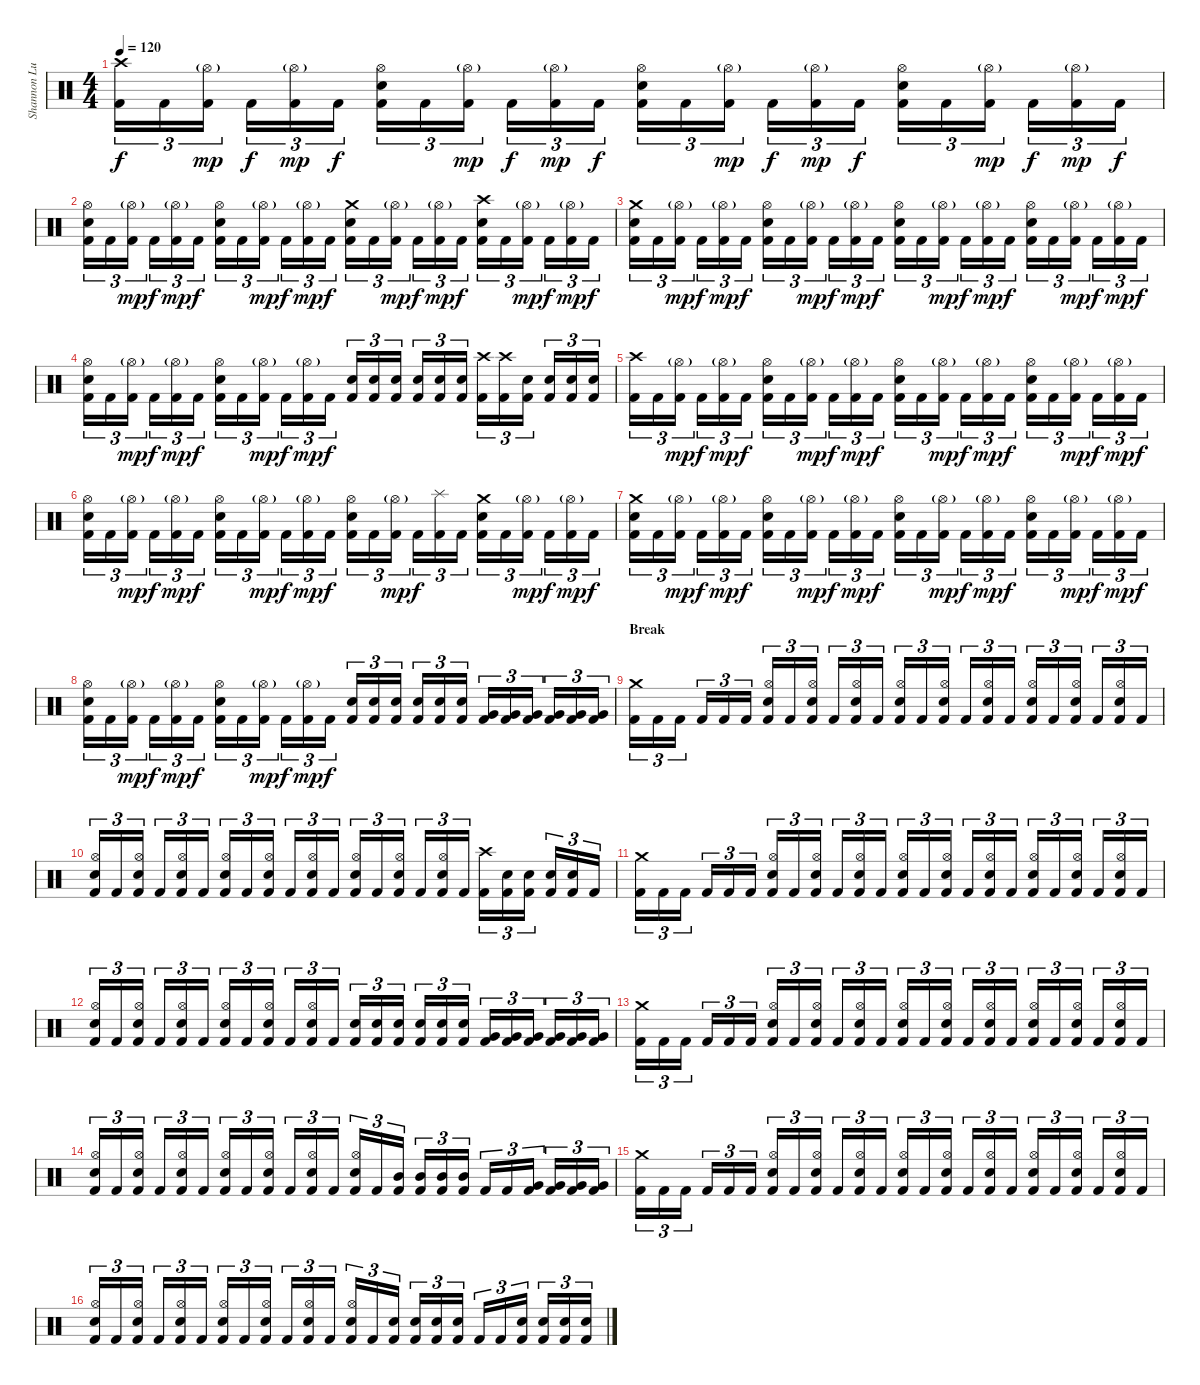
\track ("Shannon Lucas (Drums)" "Shannon Lu") {instrument percussion}
\staff {score}
\articulation defaults
\ts (4 4)
\tempo 120
\clef neutral
\ks c
("Crash high (hit)" "Kick (hit) 2").16{tu (3 2) dy f} "Kick (hit) 2".16{tu (3 2)} ("Hi-Hat (open)"{g} "Kick (hit) 2").16{tu (3 2) dy mp} "Kick (hit) 2".16{tu (3 2) dy f} ("Hi-Hat (open)"{g} "Kick (hit) 2").16{tu (3 2) dy mp} "Kick (hit) 2".16{tu (3 2) dy f} ("Snare (hit) 2" "Hi-Hat (open)" "Kick (hit) 2").16{tu (3 2)} "Kick (hit) 2".16{tu (3 2)} ("Hi-Hat (open)"{g} "Kick (hit) 2").16{tu (3 2) dy mp} "Kick (hit) 2".16{tu (3 2) dy f} ("Hi-Hat (open)"{g} "Kick (hit) 2").16{tu (3 2) dy mp} "Kick (hit) 2".16{tu (3 2) dy f} ("Snare (hit) 2" "Hi-Hat (open)" "Kick (hit) 2").16{tu (3 2)} "Kick (hit) 2".16{tu (3 2)} ("Hi-Hat (open)"{g} "Kick (hit) 2").16{tu (3 2) dy mp} "Kick (hit) 2".16{tu (3 2) dy f} ("Hi-Hat (open)"{g} "Kick (hit) 2").16{tu (3 2) dy mp} "Kick (hit) 2".16{tu (3 2) dy f} ("Snare (hit) 2" "Hi-Hat (open)" "Kick (hit) 2").16{tu (3 2)} "Kick (hit) 2".16{tu (3 2)} ("Hi-Hat (open)"{g} "Kick (hit) 2").16{tu (3 2) dy mp} "Kick (hit) 2".16{tu (3 2) dy f} ("Hi-Hat (open)"{g} "Kick (hit) 2").16{tu (3 2) dy mp} "Kick (hit) 2".16{tu (3 2) dy f} |
("Hi-Hat (open)" "Snare (hit) 2" "Kick (hit) 2").16{tu (3 2)} "Kick (hit) 2".16{tu (3 2)} ("Hi-Hat (open)"{g} "Kick (hit) 2").16{tu (3 2) dy mp} "Kick (hit) 2".16{tu (3 2) dy f} ("Hi-Hat (open)"{g} "Kick (hit) 2").16{tu (3 2) dy mp} "Kick (hit) 2".16{tu (3 2) dy f} ("Snare (hit) 2" "Hi-Hat (open)" "Kick (hit) 2").16{tu (3 2)} "Kick (hit) 2".16{tu (3 2)} ("Hi-Hat (open)"{g} "Kick (hit) 2").16{tu (3 2) dy mp} "Kick (hit) 2".16{tu (3 2) dy f} ("Hi-Hat (open)"{g} "Kick (hit) 2").16{tu (3 2) dy mp} "Kick (hit) 2".16{tu (3 2) dy f} ("Snare (hit) 2" "Crash medium (hit)" "Kick (hit) 2").16{tu (3 2)} "Kick (hit) 2".16{tu (3 2)} ("Hi-Hat (open)"{g} "Kick (hit) 2").16{tu (3 2) dy mp} "Kick (hit) 2".16{tu (3 2) dy f} ("Hi-Hat (open)"{g} "Kick (hit) 2").16{tu (3 2) dy mp} "Kick (hit) 2".16{tu (3 2) dy f} ("Snare (hit) 2" "Crash high (hit)" "Kick (hit) 2").16{tu (3 2)} "Kick (hit) 2".16{tu (3 2)} ("Hi-Hat (open)"{g} "Kick (hit) 2").16{tu (3 2) dy mp} "Kick (hit) 2".16{tu (3 2) dy f} ("Hi-Hat (open)"{g} "Kick (hit) 2").16{tu (3 2) dy mp} "Kick (hit) 2".16{tu (3 2) dy f} |
("Crash medium (hit)" "Snare (hit) 2" "Kick (hit) 2").16{tu (3 2)} "Kick (hit) 2".16{tu (3 2)} ("Hi-Hat (open)"{g} "Kick (hit) 2").16{tu (3 2) dy mp} "Kick (hit) 2".16{tu (3 2) dy f} ("Hi-Hat (open)"{g} "Kick (hit) 2").16{tu (3 2) dy mp} "Kick (hit) 2".16{tu (3 2) dy f} ("Snare (hit) 2" "Hi-Hat (open)" "Kick (hit) 2").16{tu (3 2)} "Kick (hit) 2".16{tu (3 2)} ("Hi-Hat (open)"{g} "Kick (hit) 2").16{tu (3 2) dy mp} "Kick (hit) 2".16{tu (3 2) dy f} ("Hi-Hat (open)"{g} "Kick (hit) 2").16{tu (3 2) dy mp} "Kick (hit) 2".16{tu (3 2) dy f} ("Snare (hit) 2" "Hi-Hat (open)" "Kick (hit) 2").16{tu (3 2)} "Kick (hit) 2".16{tu (3 2)} ("Hi-Hat (open)"{g} "Kick (hit) 2").16{tu (3 2) dy mp} "Kick (hit) 2".16{tu (3 2) dy f} ("Hi-Hat (open)"{g} "Kick (hit) 2").16{tu (3 2) dy mp} "Kick (hit) 2".16{tu (3 2) dy f} ("Snare (hit) 2" "Hi-Hat (open)" "Kick (hit) 2").16{tu (3 2)} "Kick (hit) 2".16{tu (3 2)} ("Hi-Hat (open)"{g} "Kick (hit) 2").16{tu (3 2) dy mp} "Kick (hit) 2".16{tu (3 2) dy f} ("Hi-Hat (open)"{g} "Kick (hit) 2").16{tu (3 2) dy mp} "Kick (hit) 2".16{tu (3 2) dy f} |
("Hi-Hat (open)" "Snare (hit) 2" "Kick (hit) 2").16{tu (3 2)} "Kick (hit) 2".16{tu (3 2)} ("Hi-Hat (open)"{g} "Kick (hit) 2").16{tu (3 2) dy mp} "Kick (hit) 2".16{tu (3 2) dy f} ("Hi-Hat (open)"{g} "Kick (hit) 2").16{tu (3 2) dy mp} "Kick (hit) 2".16{tu (3 2) dy f} ("Snare (hit) 2" "Hi-Hat (open)" "Kick (hit) 2").16{tu (3 2)} "Kick (hit) 2".16{tu (3 2)} ("Hi-Hat (open)"{g} "Kick (hit) 2").16{tu (3 2) dy mp} "Kick (hit) 2".16{tu (3 2) dy f} ("Hi-Hat (open)"{g} "Kick (hit) 2").16{tu (3 2) dy mp} "Kick (hit) 2".16{tu (3 2) dy f} ("Snare (hit) 2" "Kick (hit) 2").16{tu (3 2)} ("Snare (hit) 2" "Kick (hit) 2").16{tu (3 2)} ("Snare (hit) 2" "Kick (hit) 2").16{tu (3 2)} ("Snare (hit) 2" "Kick (hit) 2").16{tu (3 2)} ("Snare (hit) 2" "Kick (hit) 2").16{tu (3 2)} ("Snare (hit) 2" "Kick (hit) 2").16{tu (3 2)} ("Crash high (hit)" "Kick (hit) 2").16{tu (3 2)} ("Crash high (hit)" "Kick (hit) 2").16{tu (3 2)} ("Snare (hit) 2" "Kick (hit) 2").16{tu (3 2)} ("Snare (hit) 2" "Kick (hit) 2").16{tu (3 2)} ("Snare (hit) 2" "Kick (hit) 2").16{tu (3 2)} ("Snare (hit) 2" "Kick (hit) 2").16{tu (3 2)} |
("Crash high (hit)" "Kick (hit) 2").16{tu (3 2)} "Kick (hit) 2".16{tu (3 2)} ("Hi-Hat (open)"{g} "Kick (hit) 2").16{tu (3 2) dy mp} "Kick (hit) 2".16{tu (3 2) dy f} ("Hi-Hat (open)"{g} "Kick (hit) 2").16{tu (3 2) dy mp} "Kick (hit) 2".16{tu (3 2) dy f} ("Snare (hit) 2" "Hi-Hat (open)" "Kick (hit) 2").16{tu (3 2)} "Kick (hit) 2".16{tu (3 2)} ("Hi-Hat (open)"{g} "Kick (hit) 2").16{tu (3 2) dy mp} "Kick (hit) 2".16{tu (3 2) dy f} ("Hi-Hat (open)"{g} "Kick (hit) 2").16{tu (3 2) dy mp} "Kick (hit) 2".16{tu (3 2) dy f} ("Snare (hit) 2" "Hi-Hat (open)" "Kick (hit) 2").16{tu (3 2)} "Kick (hit) 2".16{tu (3 2)} ("Hi-Hat (open)"{g} "Kick (hit) 2").16{tu (3 2) dy mp} "Kick (hit) 2".16{tu (3 2) dy f} ("Hi-Hat (open)"{g} "Kick (hit) 2").16{tu (3 2) dy mp} "Kick (hit) 2".16{tu (3 2) dy f} ("Snare (hit) 2" "Hi-Hat (open)" "Kick (hit) 2").16{tu (3 2)} "Kick (hit) 2".16{tu (3 2)} ("Hi-Hat (open)"{g} "Kick (hit) 2").16{tu (3 2) dy mp} "Kick (hit) 2".16{tu (3 2) dy f} ("Hi-Hat (open)"{g} "Kick (hit) 2").16{tu (3 2) dy mp} "Kick (hit) 2".16{tu (3 2) dy f} |
("Hi-Hat (open)" "Snare (hit) 2" "Kick (hit) 2").16{tu (3 2)} "Kick (hit) 2".16{tu (3 2)} ("Hi-Hat (open)"{g} "Kick (hit) 2").16{tu (3 2) dy mp} "Kick (hit) 2".16{tu (3 2) dy f} ("Hi-Hat (open)"{g} "Kick (hit) 2").16{tu (3 2) dy mp} "Kick (hit) 2".16{tu (3 2) dy f} ("Snare (hit) 2" "Hi-Hat (open)" "Kick (hit) 2").16{tu (3 2)} "Kick (hit) 2".16{tu (3 2)} ("Hi-Hat (open)"{g} "Kick (hit) 2").16{tu (3 2) dy mp} "Kick (hit) 2".16{tu (3 2) dy f} ("Hi-Hat (open)"{g} "Kick (hit) 2").16{tu (3 2) dy mp} "Kick (hit) 2".16{tu (3 2) dy f} ("Snare (hit) 2" "Hi-Hat (open)" "Kick (hit) 2").16{tu (3 2)} "Kick (hit) 2".16{tu (3 2)} ("Hi-Hat (open)"{g} "Kick (hit) 2").16{tu (3 2) dy mp} "Kick (hit) 2".16{tu (3 2) dy f} ("Splash (hit)" "Kick (hit) 2").16{tu (3 2)} "Kick (hit) 2".16{tu (3 2)} ("Snare (hit) 2" "Crash medium (hit)" "Kick (hit) 2").16{tu (3 2)} "Kick (hit) 2".16{tu (3 2)} ("Hi-Hat (open)"{g} "Kick (hit) 2").16{tu (3 2) dy mp} "Kick (hit) 2".16{tu (3 2) dy f} ("Hi-Hat (open)"{g} "Kick (hit) 2").16{tu (3 2) dy mp} "Kick (hit) 2".16{tu (3 2) dy f} |
("Crash medium (hit)" "Snare (hit) 2" "Kick (hit) 2").16{tu (3 2)} "Kick (hit) 2".16{tu (3 2)} ("Hi-Hat (open)"{g} "Kick (hit) 2").16{tu (3 2) dy mp} "Kick (hit) 2".16{tu (3 2) dy f} ("Hi-Hat (open)"{g} "Kick (hit) 2").16{tu (3 2) dy mp} "Kick (hit) 2".16{tu (3 2) dy f} ("Snare (hit) 2" "Hi-Hat (open)" "Kick (hit) 2").16{tu (3 2)} "Kick (hit) 2".16{tu (3 2)} ("Hi-Hat (open)"{g} "Kick (hit) 2").16{tu (3 2) dy mp} "Kick (hit) 2".16{tu (3 2) dy f} ("Hi-Hat (open)"{g} "Kick (hit) 2").16{tu (3 2) dy mp} "Kick (hit) 2".16{tu (3 2) dy f} ("Snare (hit) 2" "Hi-Hat (open)" "Kick (hit) 2").16{tu (3 2)} "Kick (hit) 2".16{tu (3 2)} ("Hi-Hat (open)"{g} "Kick (hit) 2").16{tu (3 2) dy mp} "Kick (hit) 2".16{tu (3 2) dy f} ("Hi-Hat (open)"{g} "Kick (hit) 2").16{tu (3 2) dy mp} "Kick (hit) 2".16{tu (3 2) dy f} ("Snare (hit) 2" "Hi-Hat (open)" "Kick (hit) 2").16{tu (3 2)} "Kick (hit) 2".16{tu (3 2)} ("Hi-Hat (open)"{g} "Kick (hit) 2").16{tu (3 2) dy mp} "Kick (hit) 2".16{tu (3 2) dy f} ("Hi-Hat (open)"{g} "Kick (hit) 2").16{tu (3 2) dy mp} "Kick (hit) 2".16{tu (3 2) dy f} |
("Hi-Hat (open)" "Snare (hit) 2" "Kick (hit) 2").16{tu (3 2)} "Kick (hit) 2".16{tu (3 2)} ("Hi-Hat (open)"{g} "Kick (hit) 2").16{tu (3 2) dy mp} "Kick (hit) 2".16{tu (3 2) dy f} ("Hi-Hat (open)"{g} "Kick (hit) 2").16{tu (3 2) dy mp} "Kick (hit) 2".16{tu (3 2) dy f} ("Snare (hit) 2" "Hi-Hat (open)" "Kick (hit) 2").16{tu (3 2)} "Kick (hit) 2".16{tu (3 2)} ("Hi-Hat (open)"{g} "Kick (hit) 2").16{tu (3 2) dy mp} "Kick (hit) 2".16{tu (3 2) dy f} ("Hi-Hat (open)"{g} "Kick (hit) 2").16{tu (3 2) dy mp} "Kick (hit) 2".16{tu (3 2) dy f} ("Snare (hit) 2" "Kick (hit) 2").16{tu (3 2)} ("Snare (hit) 2" "Kick (hit) 2").16{tu (3 2)} ("Snare (hit) 2" "Kick (hit) 2").16{tu (3 2)} ("Snare (hit) 2" "Kick (hit) 2").16{tu (3 2)} ("Snare (hit) 2" "Kick (hit) 2").16{tu (3 2)} ("Snare (hit) 2" "Kick (hit) 2").16{tu (3 2)} ("Very Low Tom (hit)" "Kick (hit) 2").16{tu (3 2)} ("Very Low Tom (hit)" "Kick (hit) 2").16{tu (3 2)} ("Very Low Tom (hit)" "Kick (hit) 2").16{tu (3 2)} ("Very Low Tom (hit)" "Kick (hit) 2").16{tu (3 2)} ("Very Low Tom (hit)" "Kick (hit) 2").16{tu (3 2)} ("Very Low Tom (hit)" "Kick (hit) 2").16{tu (3 2)} |
\section ("" "Break")
("Crash medium (hit)" "Kick (hit) 2").16{tu (3 2)} "Kick (hit) 2".16{tu (3 2)} "Kick (hit) 2".16{tu (3 2)} "Kick (hit) 2".16{tu (3 2)} "Kick (hit) 2".16{tu (3 2)} "Kick (hit) 2".16{tu (3 2)} ("Hi-Hat (open)" "Snare (hit) 2" "Kick (hit) 2").16{tu (3 2)} "Kick (hit) 2".16{tu (3 2)} ("Hi-Hat (open)" "Snare (hit) 2" "Kick (hit) 2").16{tu (3 2)} "Kick (hit) 2".16{tu (3 2)} ("Hi-Hat (open)" "Snare (hit) 2" "Kick (hit) 2").16{tu (3 2)} "Kick (hit) 2".16{tu (3 2)} ("Hi-Hat (open)" "Snare (hit) 2" "Kick (hit) 2").16{tu (3 2)} "Kick (hit) 2".16{tu (3 2)} ("Hi-Hat (open)" "Snare (hit) 2" "Kick (hit) 2").16{tu (3 2)} "Kick (hit) 2".16{tu (3 2)} ("Hi-Hat (open)" "Snare (hit) 2" "Kick (hit) 2").16{tu (3 2)} "Kick (hit) 2".16{tu (3 2)} ("Hi-Hat (open)" "Snare (hit) 2" "Kick (hit) 2").16{tu (3 2)} "Kick (hit) 2".16{tu (3 2)} ("Hi-Hat (open)" "Snare (hit) 2" "Kick (hit) 2").16{tu (3 2)} "Kick (hit) 2".16{tu (3 2)} ("Hi-Hat (open)" "Snare (hit) 2" "Kick (hit) 2").16{tu (3 2)} "Kick (hit) 2".16{tu (3 2)} |
("Kick (hit) 2" "Hi-Hat (open)" "Snare (hit) 2").16{tu (3 2)} "Kick (hit) 2".16{tu (3 2)} ("Hi-Hat (open)" "Snare (hit) 2" "Kick (hit) 2").16{tu (3 2)} "Kick (hit) 2".16{tu (3 2)} ("Hi-Hat (open)" "Snare (hit) 2" "Kick (hit) 2").16{tu (3 2)} "Kick (hit) 2".16{tu (3 2)} ("Hi-Hat (open)" "Snare (hit) 2" "Kick (hit) 2").16{tu (3 2)} "Kick (hit) 2".16{tu (3 2)} ("Hi-Hat (open)" "Snare (hit) 2" "Kick (hit) 2").16{tu (3 2)} "Kick (hit) 2".16{tu (3 2)} ("Hi-Hat (open)" "Snare (hit) 2" "Kick (hit) 2").16{tu (3 2)} "Kick (hit) 2".16{tu (3 2)} ("Hi-Hat (open)" "Snare (hit) 2" "Kick (hit) 2").16{tu (3 2)} "Kick (hit) 2".16{tu (3 2)} ("Hi-Hat (open)" "Snare (hit) 2" "Kick (hit) 2").16{tu (3 2)} "Kick (hit) 2".16{tu (3 2)} ("Hi-Hat (open)" "Snare (hit) 2" "Kick (hit) 2").16{tu (3 2)} "Kick (hit) 2".16{tu (3 2)} ("Crash high (hit)" "Kick (hit) 2").16{tu (3 2)} ("Snare (hit) 2" "Kick (hit) 2").16{tu (3 2)} ("Snare (hit) 2" "Kick (hit) 2").16{tu (3 2)} ("Snare (hit) 2" "Kick (hit) 2").16{tu (3 2)} ("Snare (hit) 2" "Kick (hit) 2").16{tu (3 2)} "Kick (hit) 2".16{tu (3 2)} |
("Crash medium (hit)" "Kick (hit) 2").16{tu (3 2)} "Kick (hit) 2".16{tu (3 2)} "Kick (hit) 2".16{tu (3 2)} "Kick (hit) 2".16{tu (3 2)} "Kick (hit) 2".16{tu (3 2)} "Kick (hit) 2".16{tu (3 2)} ("Hi-Hat (open)" "Snare (hit) 2" "Kick (hit) 2").16{tu (3 2)} "Kick (hit) 2".16{tu (3 2)} ("Hi-Hat (open)" "Snare (hit) 2" "Kick (hit) 2").16{tu (3 2)} "Kick (hit) 2".16{tu (3 2)} ("Hi-Hat (open)" "Snare (hit) 2" "Kick (hit) 2").16{tu (3 2)} "Kick (hit) 2".16{tu (3 2)} ("Hi-Hat (open)" "Snare (hit) 2" "Kick (hit) 2").16{tu (3 2)} "Kick (hit) 2".16{tu (3 2)} ("Hi-Hat (open)" "Snare (hit) 2" "Kick (hit) 2").16{tu (3 2)} "Kick (hit) 2".16{tu (3 2)} ("Hi-Hat (open)" "Snare (hit) 2" "Kick (hit) 2").16{tu (3 2)} "Kick (hit) 2".16{tu (3 2)} ("Hi-Hat (open)" "Snare (hit) 2" "Kick (hit) 2").16{tu (3 2)} "Kick (hit) 2".16{tu (3 2)} ("Hi-Hat (open)" "Snare (hit) 2" "Kick (hit) 2").16{tu (3 2)} "Kick (hit) 2".16{tu (3 2)} ("Hi-Hat (open)" "Snare (hit) 2" "Kick (hit) 2").16{tu (3 2)} "Kick (hit) 2".16{tu (3 2)} |
("Kick (hit) 2" "Hi-Hat (open)" "Snare (hit) 2").16{tu (3 2)} "Kick (hit) 2".16{tu (3 2)} ("Hi-Hat (open)" "Snare (hit) 2" "Kick (hit) 2").16{tu (3 2)} "Kick (hit) 2".16{tu (3 2)} ("Hi-Hat (open)" "Snare (hit) 2" "Kick (hit) 2").16{tu (3 2)} "Kick (hit) 2".16{tu (3 2)} ("Hi-Hat (open)" "Snare (hit) 2" "Kick (hit) 2").16{tu (3 2)} "Kick (hit) 2".16{tu (3 2)} ("Hi-Hat (open)" "Snare (hit) 2" "Kick (hit) 2").16{tu (3 2)} "Kick (hit) 2".16{tu (3 2)} ("Hi-Hat (open)" "Snare (hit) 2" "Kick (hit) 2").16{tu (3 2)} "Kick (hit) 2".16{tu (3 2)} ("Snare (hit) 2" "Kick (hit) 2").16{tu (3 2)} ("Snare (hit) 2" "Kick (hit) 2").16{tu (3 2)} ("Snare (hit) 2" "Kick (hit) 2").16{tu (3 2)} ("Snare (hit) 2" "Kick (hit) 2").16{tu (3 2)} ("Snare (hit) 2" "Kick (hit) 2").16{tu (3 2)} ("Snare (hit) 2" "Kick (hit) 2").16{tu (3 2)} ("Very Low Tom (hit)" "Kick (hit) 2").16{tu (3 2)} ("Very Low Tom (hit)" "Kick (hit) 2").16{tu (3 2)} ("Very Low Tom (hit)" "Kick (hit) 2").16{tu (3 2)} ("Very Low Tom (hit)" "Kick (hit) 2").16{tu (3 2)} ("Very Low Tom (hit)" "Kick (hit) 2").16{tu (3 2)} ("Very Low Tom (hit)" "Kick (hit) 2").16{tu (3 2)} |
("Crash medium (hit)" "Kick (hit) 2").16{tu (3 2)} "Kick (hit) 2".16{tu (3 2)} "Kick (hit) 2".16{tu (3 2)} "Kick (hit) 2".16{tu (3 2)} "Kick (hit) 2".16{tu (3 2)} "Kick (hit) 2".16{tu (3 2)} ("Hi-Hat (open)" "Snare (hit) 2" "Kick (hit) 2").16{tu (3 2)} "Kick (hit) 2".16{tu (3 2)} ("Hi-Hat (open)" "Snare (hit) 2" "Kick (hit) 2").16{tu (3 2)} "Kick (hit) 2".16{tu (3 2)} ("Hi-Hat (open)" "Snare (hit) 2" "Kick (hit) 2").16{tu (3 2)} "Kick (hit) 2".16{tu (3 2)} ("Hi-Hat (open)" "Snare (hit) 2" "Kick (hit) 2").16{tu (3 2)} "Kick (hit) 2".16{tu (3 2)} ("Hi-Hat (open)" "Snare (hit) 2" "Kick (hit) 2").16{tu (3 2)} "Kick (hit) 2".16{tu (3 2)} ("Hi-Hat (open)" "Snare (hit) 2" "Kick (hit) 2").16{tu (3 2)} "Kick (hit) 2".16{tu (3 2)} ("Hi-Hat (open)" "Snare (hit) 2" "Kick (hit) 2").16{tu (3 2)} "Kick (hit) 2".16{tu (3 2)} ("Hi-Hat (open)" "Snare (hit) 2" "Kick (hit) 2").16{tu (3 2)} "Kick (hit) 2".16{tu (3 2)} ("Hi-Hat (open)" "Snare (hit) 2" "Kick (hit) 2").16{tu (3 2)} "Kick (hit) 2".16{tu (3 2)} |
("Kick (hit) 2" "Hi-Hat (open)" "Snare (hit) 2").16{tu (3 2)} "Kick (hit) 2".16{tu (3 2)} ("Hi-Hat (open)" "Snare (hit) 2" "Kick (hit) 2").16{tu (3 2)} "Kick (hit) 2".16{tu (3 2)} ("Hi-Hat (open)" "Snare (hit) 2" "Kick (hit) 2").16{tu (3 2)} "Kick (hit) 2".16{tu (3 2)} ("Hi-Hat (open)" "Snare (hit) 2" "Kick (hit) 2").16{tu (3 2)} "Kick (hit) 2".16{tu (3 2)} ("Hi-Hat (open)" "Snare (hit) 2" "Kick (hit) 2").16{tu (3 2)} "Kick (hit) 2".16{tu (3 2)} ("Hi-Hat (open)" "Snare (hit) 2" "Kick (hit) 2").16{tu (3 2)} "Kick (hit) 2".16{tu (3 2)} ("Hi-Hat (open)" "Snare (hit) 2" "Kick (hit) 2").16{tu (3 2)} "Kick (hit) 2".16{tu (3 2)} ("Mid Tom (hit)" "Kick (hit) 2").16{tu (3 2)} ("Mid Tom (hit)" "Kick (hit) 2").16{tu (3 2)} ("Mid Tom (hit)" "Kick (hit) 2").16{tu (3 2)} ("Mid Tom (hit)" "Kick (hit) 2").16{tu (3 2)} "Kick (hit) 2".16{tu (3 2)} "Kick (hit) 2".16{tu (3 2)} ("Very Low Tom (hit)" "Kick (hit) 2").16{tu (3 2)} ("Very Low Tom (hit)" "Kick (hit) 2").16{tu (3 2)} ("Very Low Tom (hit)" "Kick (hit) 2").16{tu (3 2)} ("Very Low Tom (hit)" "Kick (hit) 2").16{tu (3 2)} |
("Crash medium (hit)" "Kick (hit) 2").16{tu (3 2)} "Kick (hit) 2".16{tu (3 2)} "Kick (hit) 2".16{tu (3 2)} "Kick (hit) 2".16{tu (3 2)} "Kick (hit) 2".16{tu (3 2)} "Kick (hit) 2".16{tu (3 2)} ("Hi-Hat (open)" "Snare (hit) 2" "Kick (hit) 2").16{tu (3 2)} "Kick (hit) 2".16{tu (3 2)} ("Hi-Hat (open)" "Snare (hit) 2" "Kick (hit) 2").16{tu (3 2)} "Kick (hit) 2".16{tu (3 2)} ("Hi-Hat (open)" "Snare (hit) 2" "Kick (hit) 2").16{tu (3 2)} "Kick (hit) 2".16{tu (3 2)} ("Hi-Hat (open)" "Snare (hit) 2" "Kick (hit) 2").16{tu (3 2)} "Kick (hit) 2".16{tu (3 2)} ("Hi-Hat (open)" "Snare (hit) 2" "Kick (hit) 2").16{tu (3 2)} "Kick (hit) 2".16{tu (3 2)} ("Hi-Hat (open)" "Snare (hit) 2" "Kick (hit) 2").16{tu (3 2)} "Kick (hit) 2".16{tu (3 2)} ("Hi-Hat (open)" "Snare (hit) 2" "Kick (hit) 2").16{tu (3 2)} "Kick (hit) 2".16{tu (3 2)} ("Hi-Hat (open)" "Snare (hit) 2" "Kick (hit) 2").16{tu (3 2)} "Kick (hit) 2".16{tu (3 2)} ("Hi-Hat (open)" "Snare (hit) 2" "Kick (hit) 2").16{tu (3 2)} "Kick (hit) 2".16{tu (3 2)} |
("Kick (hit) 2" "Hi-Hat (open)" "Snare (hit) 2").16{tu (3 2)} "Kick (hit) 2".16{tu (3 2)} ("Hi-Hat (open)" "Snare (hit) 2" "Kick (hit) 2").16{tu (3 2)} "Kick (hit) 2".16{tu (3 2)} ("Hi-Hat (open)" "Snare (hit) 2" "Kick (hit) 2").16{tu (3 2)} "Kick (hit) 2".16{tu (3 2)} ("Hi-Hat (open)" "Snare (hit) 2" "Kick (hit) 2").16{tu (3 2)} "Kick (hit) 2".16{tu (3 2)} ("Hi-Hat (open)" "Snare (hit) 2" "Kick (hit) 2").16{tu (3 2)} "Kick (hit) 2".16{tu (3 2)} ("Hi-Hat (open)" "Snare (hit) 2" "Kick (hit) 2").16{tu (3 2)} "Kick (hit) 2".16{tu (3 2)} ("Hi-Hat (open)" "Snare (hit) 2" "Kick (hit) 2").16{tu (3 2)} "Kick (hit) 2".16{tu (3 2)} ("Snare (hit) 2" "Kick (hit) 2").16{tu (3 2)} ("Snare (hit) 2" "Kick (hit) 2").16{tu (3 2)} ("Snare (hit) 2" "Kick (hit) 2").16{tu (3 2)} ("Snare (hit) 2" "Kick (hit) 2").16{tu (3 2)} "Kick (hit) 2".16{tu (3 2)} "Kick (hit) 2".16{tu (3 2)} ("Snare (hit) 2" "Kick (hit) 2").16{tu (3 2)} ("Snare (hit) 2" "Kick (hit) 2").16{tu (3 2)} ("Snare (hit) 2" "Kick (hit) 2").16{tu (3 2)} ("Snare (hit) 2" "Kick (hit) 2").16{tu (3 2)}
